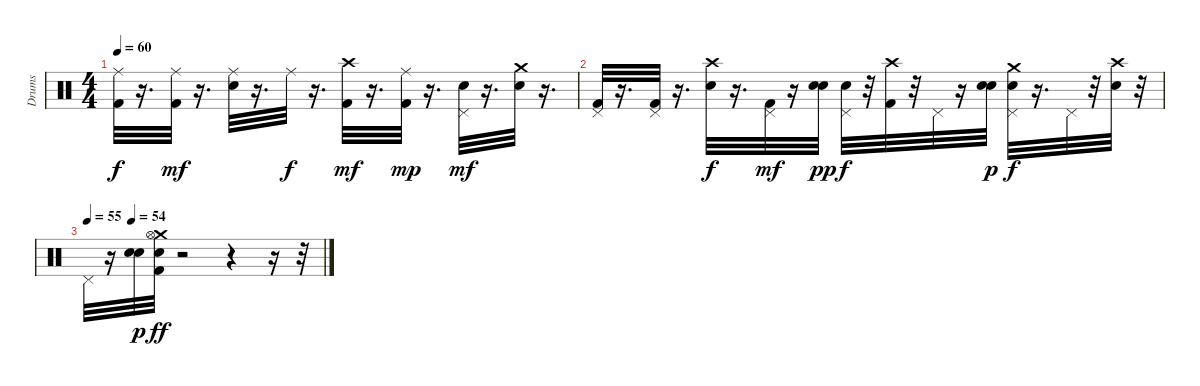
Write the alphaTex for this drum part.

\track ("Drums" "Drums") {instrument percussion}
\staff {score}
\articulation defaults
\ts (4 4)
\tempo 60
\clef neutral
\ks c
("Kick (hit) 2" "Ride (middle)").32{dy f} r.16{d} ("Kick (hit) 2" "Ride (middle)").32{dy mf} r.16{d} ("Snare (hit) 2" "Ride (middle)").32 r.16{d} "Ride (middle)".32{dy f} r.16{d} ("Kick (hit) 2" "Crash high (hit)").32{dy mf} r.16{d} ("Ride (middle)" "Kick (hit) 2").32{dy mp} r.16{d} ("Snare (hit) 2" "Pedal Hi-Hat (hit)").32{dy mf} r.16{d} ("Crash medium (hit)" "Snare (hit) 2").32 r.16{d} |
("Kick (hit) 2" "Pedal Hi-Hat (hit)").32 r.16{d} ("Kick (hit) 2" "Pedal Hi-Hat (hit)").32 r.16{d} ("Crash high (hit)" "Snare (hit) 2").32{dy f} r.16{d} ("Kick (hit) 2" "Pedal Hi-Hat (hit)").32{dy mf} r.16 ("Snare (hit) 2" "Snare (hit) 2").32{dy pp} ("Snare (hit) 2" "Pedal Hi-Hat (hit)").32{dy f} r.32 ("Kick (hit) 2" "Crash high (hit)").32 r.32 "Pedal Hi-Hat (hit)".32 r.16 ("Snare (hit) 2" "Snare (hit) 2").32{dy p} ("Snare (hit) 2" "Crash medium (hit)" "Pedal Hi-Hat (hit)").32{dy f} r.16{d} "Pedal Hi-Hat (hit)".32 r.32 ("Crash high (hit)" "Snare (hit) 2").32 r.32 |
\tempo 55
\tempo (54 0.1875)
"Pedal Hi-Hat (hit)".32 r.16 ("Snare (hit) 2" "Snare (hit) 2").32{dy p} ("Kick (hit) 2" "Crash medium (hit)" "Snare (hit) 2" "Hi-Hat (open)").32{dy ff} r.2 r.4 r.16 r.32
